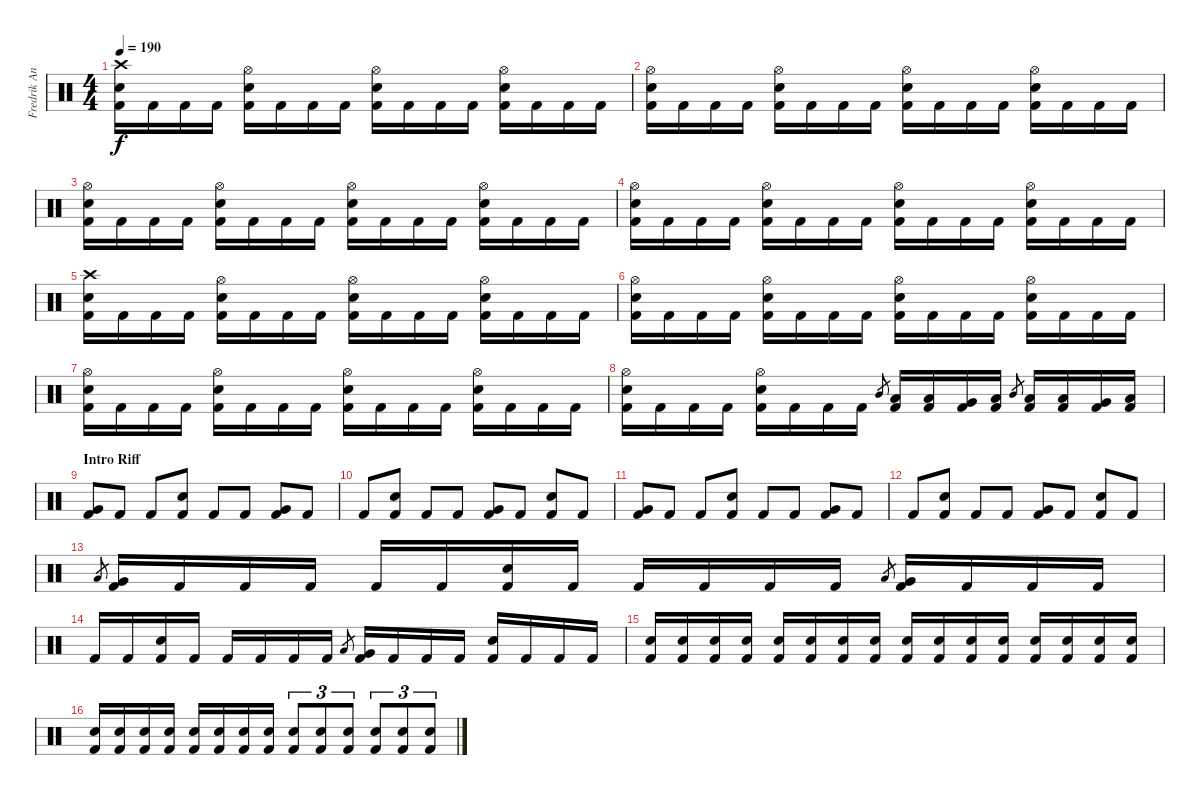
\track ("Fredrik Andersson" "Fredrik An") {instrument percussion}
\staff {score}
\articulation defaults
\ts (4 4)
\section ("" "")
\tempo 190
\clef neutral
\ks c
("Crash high (hit)" "Electric Snare (hit)" "Kick (hit) 2").16{dy f} "Kick (hit) 2".16 "Kick (hit) 2".16 "Kick (hit) 2".16 ("Hi-Hat (open)" "Electric Snare (hit)" "Kick (hit) 2").16 "Kick (hit) 2".16 "Kick (hit) 2".16 "Kick (hit) 2".16 ("Hi-Hat (open)" "Electric Snare (hit)" "Kick (hit) 2").16 "Kick (hit) 2".16 "Kick (hit) 2".16 "Kick (hit) 2".16 ("Hi-Hat (open)" "Electric Snare (hit)" "Kick (hit) 2").16 "Kick (hit) 2".16 "Kick (hit) 2".16 "Kick (hit) 2".16 |
("Hi-Hat (open)" "Electric Snare (hit)" "Kick (hit) 2").16 "Kick (hit) 2".16 "Kick (hit) 2".16 "Kick (hit) 2".16 ("Hi-Hat (open)" "Electric Snare (hit)" "Kick (hit) 2").16 "Kick (hit) 2".16 "Kick (hit) 2".16 "Kick (hit) 2".16 ("Hi-Hat (open)" "Electric Snare (hit)" "Kick (hit) 2").16 "Kick (hit) 2".16 "Kick (hit) 2".16 "Kick (hit) 2".16 ("Hi-Hat (open)" "Electric Snare (hit)" "Kick (hit) 2").16 "Kick (hit) 2".16 "Kick (hit) 2".16 "Kick (hit) 2".16 |
("Hi-Hat (open)" "Electric Snare (hit)" "Kick (hit) 2").16 "Kick (hit) 2".16 "Kick (hit) 2".16 "Kick (hit) 2".16 ("Hi-Hat (open)" "Electric Snare (hit)" "Kick (hit) 2").16 "Kick (hit) 2".16 "Kick (hit) 2".16 "Kick (hit) 2".16 ("Hi-Hat (open)" "Electric Snare (hit)" "Kick (hit) 2").16 "Kick (hit) 2".16 "Kick (hit) 2".16 "Kick (hit) 2".16 ("Hi-Hat (open)" "Electric Snare (hit)" "Kick (hit) 2").16 "Kick (hit) 2".16 "Kick (hit) 2".16 "Kick (hit) 2".16 |
("Hi-Hat (open)" "Electric Snare (hit)" "Kick (hit) 2").16 "Kick (hit) 2".16 "Kick (hit) 2".16 "Kick (hit) 2".16 ("Hi-Hat (open)" "Electric Snare (hit)" "Kick (hit) 2").16 "Kick (hit) 2".16 "Kick (hit) 2".16 "Kick (hit) 2".16 ("Hi-Hat (open)" "Electric Snare (hit)" "Kick (hit) 2").16 "Kick (hit) 2".16 "Kick (hit) 2".16 "Kick (hit) 2".16 ("Hi-Hat (open)" "Electric Snare (hit)" "Kick (hit) 2").16 "Kick (hit) 2".16 "Kick (hit) 2".16 "Kick (hit) 2".16 |
("Crash high (hit)" "Electric Snare (hit)" "Kick (hit) 2").16 "Kick (hit) 2".16 "Kick (hit) 2".16 "Kick (hit) 2".16 ("Hi-Hat (open)" "Electric Snare (hit)" "Kick (hit) 2").16 "Kick (hit) 2".16 "Kick (hit) 2".16 "Kick (hit) 2".16 ("Hi-Hat (open)" "Electric Snare (hit)" "Kick (hit) 2").16 "Kick (hit) 2".16 "Kick (hit) 2".16 "Kick (hit) 2".16 ("Hi-Hat (open)" "Electric Snare (hit)" "Kick (hit) 2").16 "Kick (hit) 2".16 "Kick (hit) 2".16 "Kick (hit) 2".16 |
("Hi-Hat (open)" "Electric Snare (hit)" "Kick (hit) 2").16 "Kick (hit) 2".16 "Kick (hit) 2".16 "Kick (hit) 2".16 ("Hi-Hat (open)" "Electric Snare (hit)" "Kick (hit) 2").16 "Kick (hit) 2".16 "Kick (hit) 2".16 "Kick (hit) 2".16 ("Hi-Hat (open)" "Electric Snare (hit)" "Kick (hit) 2").16 "Kick (hit) 2".16 "Kick (hit) 2".16 "Kick (hit) 2".16 ("Hi-Hat (open)" "Electric Snare (hit)" "Kick (hit) 2").16 "Kick (hit) 2".16 "Kick (hit) 2".16 "Kick (hit) 2".16 |
("Hi-Hat (open)" "Electric Snare (hit)" "Kick (hit) 2").16 "Kick (hit) 2".16 "Kick (hit) 2".16 "Kick (hit) 2".16 ("Hi-Hat (open)" "Electric Snare (hit)" "Kick (hit) 2").16 "Kick (hit) 2".16 "Kick (hit) 2".16 "Kick (hit) 2".16 ("Hi-Hat (open)" "Electric Snare (hit)" "Kick (hit) 2").16 "Kick (hit) 2".16 "Kick (hit) 2".16 "Kick (hit) 2".16 ("Hi-Hat (open)" "Electric Snare (hit)" "Kick (hit) 2").16 "Kick (hit) 2".16 "Kick (hit) 2".16 "Kick (hit) 2".16 |
("Hi-Hat (open)" "Electric Snare (hit)" "Kick (hit) 2").16 "Kick (hit) 2".16 "Kick (hit) 2".16 "Kick (hit) 2".16 ("Hi-Hat (open)" "Electric Snare (hit)" "Kick (hit) 2").16 "Kick (hit) 2".16 "Kick (hit) 2".16 "Kick (hit) 2".16 "Mid Tom (hit)".8{gr} ("Low Tom (hit)" "Kick (hit) 2").16 ("Low Tom (hit)" "Kick (hit) 2").16 ("Very Low Tom (hit)" "Kick (hit) 2").16 ("Low Floor Tom (hit)" "Kick (hit) 2").16 "Mid Tom (hit)".8{gr} ("Low Tom (hit)" "Kick (hit) 2").16 ("Low Tom (hit)" "Kick (hit) 2").16 ("Very Low Tom (hit)" "Kick (hit) 2").16 ("Low Floor Tom (hit)" "Kick (hit) 2").16 |
\section ("" "Intro Riff")
("Very Low Tom (hit)" "Kick (hit) 2").8 "Kick (hit) 2".8 "Kick (hit) 2".8 ("Electric Snare (hit)" "Kick (hit) 2").8 "Kick (hit) 2".8 "Kick (hit) 2".8 ("Very Low Tom (hit)" "Kick (hit) 2").8 "Kick (hit) 2".8 |
"Kick (hit) 2".8 ("Electric Snare (hit)" "Kick (hit) 2").8 "Kick (hit) 2".8 "Kick (hit) 2".8 ("Very Low Tom (hit)" "Kick (hit) 2").8 "Kick (hit) 2".8 ("Electric Snare (hit)" "Kick (hit) 2").8 "Kick (hit) 2".8 |
("Very Low Tom (hit)" "Kick (hit) 2").8 "Kick (hit) 2".8 "Kick (hit) 2".8 ("Electric Snare (hit)" "Kick (hit) 2").8 "Kick (hit) 2".8 "Kick (hit) 2".8 ("Very Low Tom (hit)" "Kick (hit) 2").8 "Kick (hit) 2".8 |
"Kick (hit) 2".8 ("Electric Snare (hit)" "Kick (hit) 2").8 "Kick (hit) 2".8 "Kick (hit) 2".8 ("Very Low Tom (hit)" "Kick (hit) 2").8 "Kick (hit) 2".8 ("Electric Snare (hit)" "Kick (hit) 2").8 "Kick (hit) 2".8 |
"Low Tom (hit)".8{gr} ("Very Low Tom (hit)" "Kick (hit) 2").16 "Kick (hit) 2".16 "Kick (hit) 2".16 "Kick (hit) 2".16 "Kick (hit) 2".16 "Kick (hit) 2".16 ("Electric Snare (hit)" "Kick (hit) 2").16 "Kick (hit) 2".16 "Kick (hit) 2".16 "Kick (hit) 2".16 "Kick (hit) 2".16 "Kick (hit) 2".16 "Low Tom (hit)".8{gr} ("Very Low Tom (hit)" "Kick (hit) 2").16 "Kick (hit) 2".16 "Kick (hit) 2".16 "Kick (hit) 2".16 |
"Kick (hit) 2".16 "Kick (hit) 2".16 ("Electric Snare (hit)" "Kick (hit) 2").16 "Kick (hit) 2".16 "Kick (hit) 2".16 "Kick (hit) 2".16 "Kick (hit) 2".16 "Kick (hit) 2".16 "Low Tom (hit)".8{gr} ("Very Low Tom (hit)" "Kick (hit) 2").16 "Kick (hit) 2".16 "Kick (hit) 2".16 "Kick (hit) 2".16 ("Electric Snare (hit)" "Kick (hit) 2").16 "Kick (hit) 2".16 "Kick (hit) 2".16 "Kick (hit) 2".16 |
("Electric Snare (hit)" "Kick (hit) 2").16 ("Electric Snare (hit)" "Kick (hit) 2").16 ("Electric Snare (hit)" "Kick (hit) 2").16 ("Electric Snare (hit)" "Kick (hit) 2").16 ("Electric Snare (hit)" "Kick (hit) 2").16 ("Electric Snare (hit)" "Kick (hit) 2").16 ("Electric Snare (hit)" "Kick (hit) 2").16 ("Electric Snare (hit)" "Kick (hit) 2").16 ("Electric Snare (hit)" "Kick (hit) 2").16 ("Electric Snare (hit)" "Kick (hit) 2").16 ("Electric Snare (hit)" "Kick (hit) 2").16 ("Electric Snare (hit)" "Kick (hit) 2").16 ("Electric Snare (hit)" "Kick (hit) 2").16 ("Electric Snare (hit)" "Kick (hit) 2").16 ("Electric Snare (hit)" "Kick (hit) 2").16 ("Electric Snare (hit)" "Kick (hit) 2").16 |
("Electric Snare (hit)" "Kick (hit) 2").16 ("Electric Snare (hit)" "Kick (hit) 2").16 ("Electric Snare (hit)" "Kick (hit) 2").16 ("Electric Snare (hit)" "Kick (hit) 2").16 ("Electric Snare (hit)" "Kick (hit) 2").16 ("Electric Snare (hit)" "Kick (hit) 2").16 ("Electric Snare (hit)" "Kick (hit) 2").16 ("Electric Snare (hit)" "Kick (hit) 2").16 ("Electric Snare (hit)" "Kick (hit) 2").8{tu (3 2)} ("Electric Snare (hit)" "Kick (hit) 2").8{tu (3 2)} ("Electric Snare (hit)" "Kick (hit) 2").8{tu (3 2)} ("Electric Snare (hit)" "Kick (hit) 2").8{tu (3 2)} ("Electric Snare (hit)" "Kick (hit) 2").8{tu (3 2)} ("Electric Snare (hit)" "Kick (hit) 2").8{tu (3 2)}
